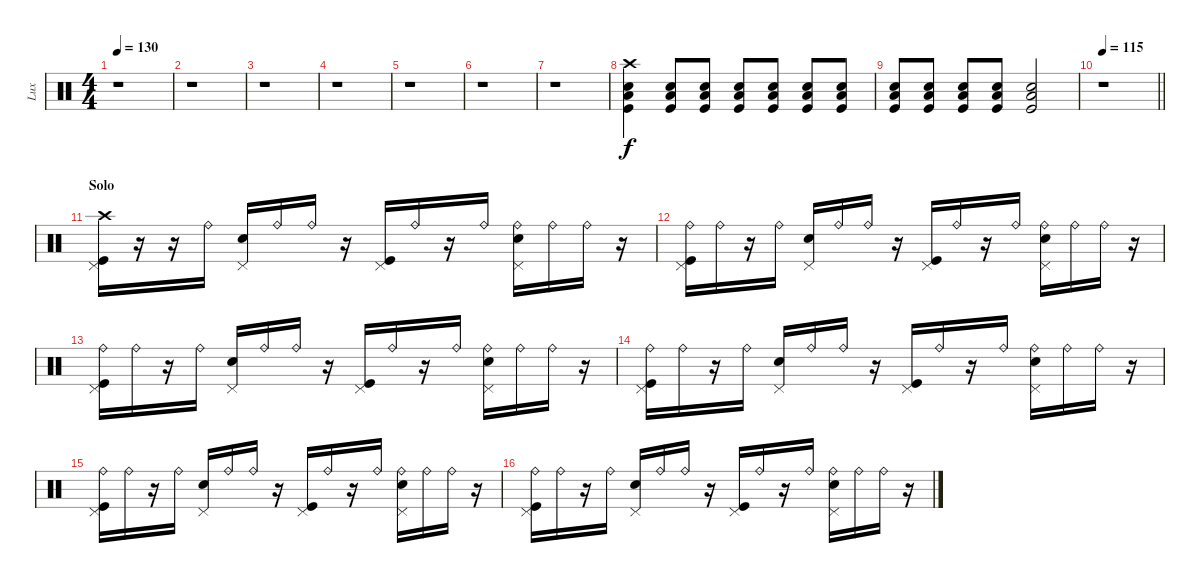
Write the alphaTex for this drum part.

\track ("Lux" "Lux") {instrument percussion}
\staff {score}
\articulation defaults
\ts (4 4)
\tempo 130
\clef neutral
\ks c
r.1{dy fff} |
r.1 |
r.1 |
r.1 |
r.1 |
r.1 |
r.1 |
("Crash high (hit)" "Snare (hit) 2" "Low Tom (hit)" "Kick (hit)").4{dy f} ("Snare (hit) 2" "Low Tom (hit)" "Kick (hit)").8 ("Snare (hit) 2" "Low Tom (hit)" "Kick (hit)").8 ("Snare (hit) 2" "Low Tom (hit)" "Kick (hit)").8 ("Snare (hit) 2" "Low Tom (hit)" "Kick (hit)").8 ("Snare (hit) 2" "Low Tom (hit)" "Kick (hit)").8 ("Snare (hit) 2" "Low Tom (hit)" "Kick (hit)").8 |
("Snare (hit) 2" "Low Tom (hit)" "Kick (hit)").8 ("Snare (hit) 2" "Low Tom (hit)" "Kick (hit)").8 ("Snare (hit) 2" "Low Tom (hit)" "Kick (hit)").8 ("Snare (hit) 2" "Low Tom (hit)" "Kick (hit)").8 ("Snare (hit) 2" "Low Tom (hit)" "Kick (hit)").2 |
\tempo 115
\barLineRight lightlight
r.1 |
\section ("" "Solo")
("Crash high (hit)" "Pedal Hi-Hat (hit)" "Kick (hit)").16 r.16 r.16 "Ride (bell)".16 ("Pedal Hi-Hat (hit)" "Snare (hit) 2").16 "Ride (bell)".16 "Ride (bell)".16 r.16 ("Pedal Hi-Hat (hit)" "Kick (hit)").16 "Ride (bell)".16 r.16 "Ride (bell)".16 ("Ride (bell)" "Pedal Hi-Hat (hit)" "Snare (hit) 2").16 "Ride (bell)".16 "Ride (bell)".16 r.16 |
("Ride (bell)" "Pedal Hi-Hat (hit)" "Kick (hit)").16 "Ride (bell)".16 r.16 "Ride (bell)".16 ("Pedal Hi-Hat (hit)" "Snare (hit) 2").16 "Ride (bell)".16 "Ride (bell)".16 r.16 ("Pedal Hi-Hat (hit)" "Kick (hit)").16 "Ride (bell)".16 r.16 "Ride (bell)".16 ("Ride (bell)" "Pedal Hi-Hat (hit)" "Snare (hit) 2").16 "Ride (bell)".16 "Ride (bell)".16 r.16 |
("Ride (bell)" "Pedal Hi-Hat (hit)" "Kick (hit)").16 "Ride (bell)".16 r.16 "Ride (bell)".16 ("Pedal Hi-Hat (hit)" "Snare (hit) 2").16 "Ride (bell)".16 "Ride (bell)".16 r.16 ("Pedal Hi-Hat (hit)" "Kick (hit)").16 "Ride (bell)".16 r.16 "Ride (bell)".16 ("Ride (bell)" "Pedal Hi-Hat (hit)" "Snare (hit) 2").16 "Ride (bell)".16 "Ride (bell)".16 r.16 |
("Ride (bell)" "Pedal Hi-Hat (hit)" "Kick (hit)").16 "Ride (bell)".16 r.16 "Ride (bell)".16 ("Pedal Hi-Hat (hit)" "Snare (hit) 2").16 "Ride (bell)".16 "Ride (bell)".16 r.16 ("Pedal Hi-Hat (hit)" "Kick (hit)").16 "Ride (bell)".16 r.16 "Ride (bell)".16 ("Ride (bell)" "Pedal Hi-Hat (hit)" "Snare (hit) 2").16 "Ride (bell)".16 "Ride (bell)".16 r.16 |
("Ride (bell)" "Pedal Hi-Hat (hit)" "Kick (hit)").16 "Ride (bell)".16 r.16 "Ride (bell)".16 ("Pedal Hi-Hat (hit)" "Snare (hit) 2").16 "Ride (bell)".16 "Ride (bell)".16 r.16 ("Pedal Hi-Hat (hit)" "Kick (hit)").16 "Ride (bell)".16 r.16 "Ride (bell)".16 ("Ride (bell)" "Pedal Hi-Hat (hit)" "Snare (hit) 2").16 "Ride (bell)".16 "Ride (bell)".16 r.16 |
("Ride (bell)" "Pedal Hi-Hat (hit)" "Kick (hit)").16 "Ride (bell)".16 r.16 "Ride (bell)".16 ("Pedal Hi-Hat (hit)" "Snare (hit) 2").16 "Ride (bell)".16 "Ride (bell)".16 r.16 ("Pedal Hi-Hat (hit)" "Kick (hit)").16 "Ride (bell)".16 r.16 "Ride (bell)".16 ("Ride (bell)" "Pedal Hi-Hat (hit)" "Snare (hit) 2").16 "Ride (bell)".16 "Ride (bell)".16 r.16
